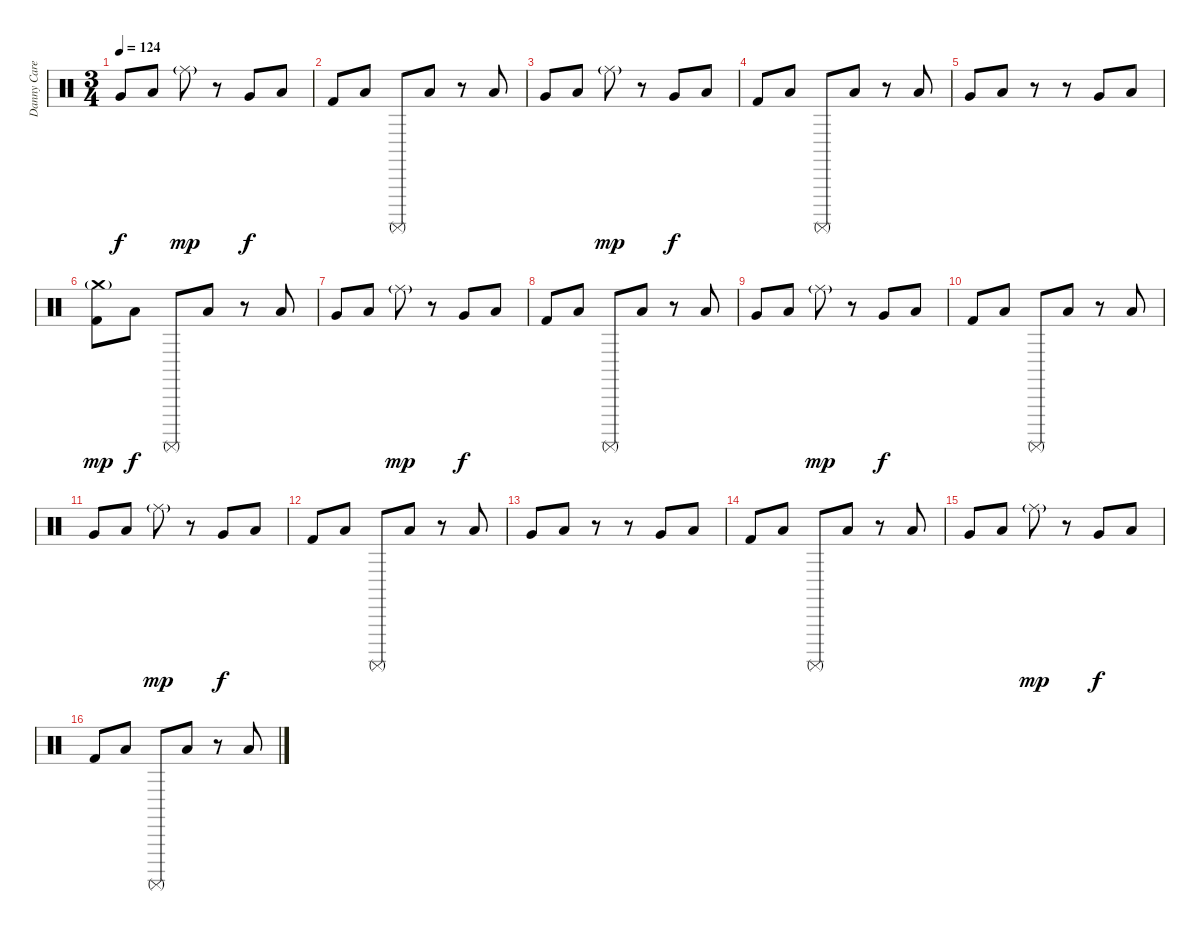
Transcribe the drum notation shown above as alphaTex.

\track ("Danny Carey" "Danny Care") {instrument percussion}
\staff {score}
\articulation defaults
\ts (3 4)
\tempo 124
\clef neutral
\ks c "Very Low Tom (hit)".8{dy f} "Low Tom (hit)".8 "Ride (middle)"{g}.8{dy mp}
r.8 "Very Low Tom (hit)".8{dy f} "Low Floor Tom (hit)".8 |
"Kick (hit) 2".8 "Low Tom (hit)".8 "Surdo (mute)".8 "Low Tom (hit)".8 r.8 "Low Tom (hit)".8 |
"Very Low Tom (hit)".8 "Low Tom (hit)".8 "Ride (middle)"{g}.8{dy mp} r.8 "Very Low Tom (hit)".8{dy f} "Low Floor Tom (hit)".8 |
"Kick (hit) 2".8 "Low Tom (hit)".8 "Surdo (mute)".8 "Low Tom (hit)".8 r.8 "Low Tom (hit)".8 |
"Very Low Tom (hit)".8 "Low Tom (hit)".8 r.8 r.8 "Very Low Tom (hit)".8 "Low Floor Tom (hit)".8 |
("Crash medium (hit)"{g} "Kick (hit) 2").8{dy mp} "Low Tom (hit)".8{dy f} "Surdo (mute)".8 "Low Tom (hit)".8 r.8 "Low Tom (hit)".8 |
"Very Low Tom (hit)".8 "Low Tom (hit)".8 "Ride (middle)"{g}.8{dy mp} r.8 "Very Low Tom (hit)".8{dy f} "Low Floor Tom (hit)".8 |
"Kick (hit) 2".8 "Low Tom (hit)".8 "Surdo (mute)".8 "Low Tom (hit)".8 r.8 "Low Tom (hit)".8 |
"Very Low Tom (hit)".8 "Low Tom (hit)".8 "Ride (middle)"{g}.8{dy mp} r.8 "Very Low Tom (hit)".8{dy f} "Low Floor Tom (hit)".8 |
"Kick (hit) 2".8 "Low Tom (hit)".8 "Surdo (mute)".8 "Low Tom (hit)".8 r.8 "Low Tom (hit)".8 |
"Very Low Tom (hit)".8 "Low Tom (hit)".8 "Ride (middle)"{g}.8{dy mp} r.8 "Very Low Tom (hit)".8{dy f} "Low Floor Tom (hit)".8 |
"Kick (hit) 2".8 "Low Tom (hit)".8 "Surdo (mute)".8 "Low Tom (hit)".8 r.8 "Low Tom (hit)".8 |
"Very Low Tom (hit)".8 "Low Tom (hit)".8 r.8 r.8 "Very Low Tom (hit)".8 "Low Floor Tom (hit)".8 |
"Kick (hit) 2".8 "Low Tom (hit)".8 "Surdo (mute)".8 "Low Tom (hit)".8 r.8 "Low Tom (hit)".8 |
"Very Low Tom (hit)".8 "Low Tom (hit)".8 "Ride (middle)"{g}.8{dy mp} r.8 "Very Low Tom (hit)".8{dy f} "Low Floor Tom (hit)".8 |
"Kick (hit) 2".8 "Low Tom (hit)".8 "Surdo (mute)".8 "Low Tom (hit)".8 r.8 "Low Tom (hit)".8
